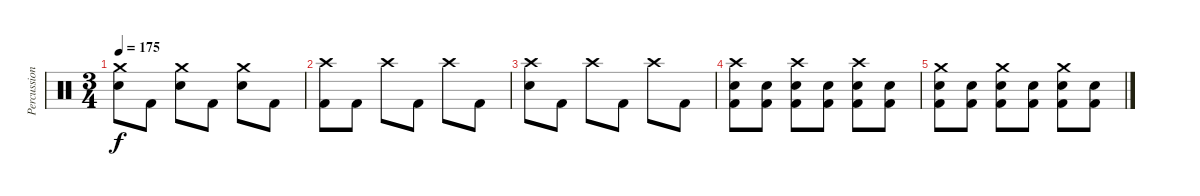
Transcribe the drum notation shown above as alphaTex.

\track ("Percussion" "Percussion") {instrument percussion}
\staff {score}
\articulation defaults
\ts (3 4)
\tempo 175
\clef neutral
\ks c
("Crash medium (hit)" "Electric Snare (hit)").8{dy f} "Kick (hit) 2".8 ("Crash medium (hit)" "Electric Snare (hit)").8 "Kick (hit) 2".8 ("Crash medium (hit)" "Electric Snare (hit)").8 "Kick (hit) 2".8 |
("Crash high (hit)" "Kick (hit) 2").8 "Kick (hit) 2".8 "Crash high (hit)".8 "Kick (hit) 2".8 "Crash high (hit)".8 "Kick (hit) 2".8 |
("Crash high (hit)" "Electric Snare (hit)").8 "Kick (hit) 2".8 "Crash high (hit)".8 "Kick (hit) 2".8 "Crash high (hit)".8 "Kick (hit) 2".8 |
("Crash high (hit)" "Electric Snare (hit)" "Kick (hit) 2").8 ("Electric Snare (hit)" "Kick (hit) 2").8 ("Crash high (hit)" "Electric Snare (hit)" "Kick (hit) 2").8 ("Electric Snare (hit)" "Kick (hit) 2").8 ("Crash high (hit)" "Electric Snare (hit)" "Kick (hit) 2").8 ("Electric Snare (hit)" "Kick (hit) 2").8 |
("Crash medium (hit)" "Electric Snare (hit)" "Kick (hit) 2").8 ("Electric Snare (hit)" "Kick (hit) 2").8 ("Crash medium (hit)" "Electric Snare (hit)" "Kick (hit) 2").8 ("Electric Snare (hit)" "Kick (hit) 2").8 ("Crash medium (hit)" "Electric Snare (hit)" "Kick (hit) 2").8 ("Electric Snare (hit)" "Kick (hit) 2").8
